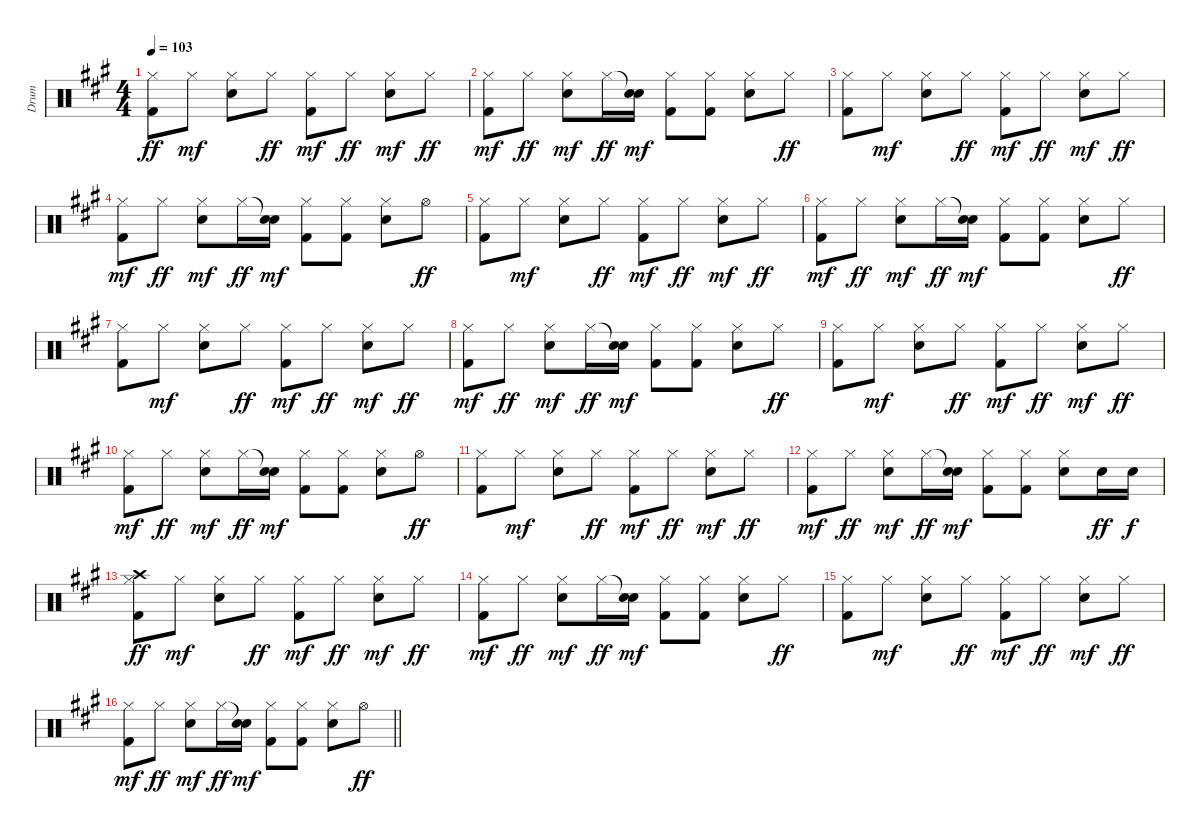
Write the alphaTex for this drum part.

\track ("Drum" "Drum") {instrument percussion}
\staff {score}
\articulation defaults
\ts (4 4)
\tempo 103
\clef neutral
\ks a
("Hi-Hat (closed)" "Kick (hit) 2").8{dy ff} "Hi-Hat (closed)".8{dy mf} ("Hi-Hat (closed)" "Electric Snare (hit)").8 "Hi-Hat (closed)".8{dy ff} ("Hi-Hat (closed)" "Kick (hit) 2").8{dy mf} "Hi-Hat (closed)".8{dy ff} ("Hi-Hat (closed)" "Electric Snare (hit)").8{dy mf} "Hi-Hat (closed)".8{dy ff} |
("Hi-Hat (closed)" "Kick (hit) 2").8{dy mf} "Hi-Hat (closed)".8{dy ff} ("Hi-Hat (closed)" "Electric Snare (hit)").8{dy mf} "Hi-Hat (closed)".16{dy ff} ("Snare (hit)"{t} "Electric Snare (hit)").16{dy mf} ("Hi-Hat (closed)" "Kick (hit) 2").8 ("Hi-Hat (closed)" "Kick (hit) 2").8 ("Hi-Hat (closed)" "Electric Snare (hit)").8 "Hi-Hat (closed)".8{dy ff} |
("Hi-Hat (closed)" "Kick (hit) 2").8 "Hi-Hat (closed)".8{dy mf} ("Hi-Hat (closed)" "Electric Snare (hit)").8 "Hi-Hat (closed)".8{dy ff} ("Hi-Hat (closed)" "Kick (hit) 2").8{dy mf} "Hi-Hat (closed)".8{dy ff} ("Hi-Hat (closed)" "Electric Snare (hit)").8{dy mf} "Hi-Hat (closed)".8{dy ff} |
("Hi-Hat (closed)" "Kick (hit) 2").8{dy mf} "Hi-Hat (closed)".8{dy ff} ("Hi-Hat (closed)" "Electric Snare (hit)").8{dy mf} "Hi-Hat (closed)".16{dy ff} ("Snare (hit)"{t} "Electric Snare (hit)").16{dy mf} ("Hi-Hat (closed)" "Kick (hit) 2").8 ("Hi-Hat (closed)" "Kick (hit) 2").8 ("Hi-Hat (closed)" "Electric Snare (hit)").8 "Hi-Hat (open)".8{dy ff} |
("Hi-Hat (closed)" "Kick (hit) 2").8 "Hi-Hat (closed)".8{dy mf} ("Hi-Hat (closed)" "Electric Snare (hit)").8 "Hi-Hat (closed)".8{dy ff} ("Hi-Hat (closed)" "Kick (hit) 2").8{dy mf} "Hi-Hat (closed)".8{dy ff} ("Hi-Hat (closed)" "Electric Snare (hit)").8{dy mf} "Hi-Hat (closed)".8{dy ff} |
("Hi-Hat (closed)" "Kick (hit) 2").8{dy mf} "Hi-Hat (closed)".8{dy ff} ("Hi-Hat (closed)" "Electric Snare (hit)").8{dy mf} "Hi-Hat (closed)".16{dy ff} ("Snare (hit)"{t} "Electric Snare (hit)").16{dy mf} ("Hi-Hat (closed)" "Kick (hit) 2").8 ("Hi-Hat (closed)" "Kick (hit) 2").8 ("Hi-Hat (closed)" "Electric Snare (hit)").8 "Hi-Hat (closed)".8{dy ff} |
("Hi-Hat (closed)" "Kick (hit) 2").8 "Hi-Hat (closed)".8{dy mf} ("Hi-Hat (closed)" "Electric Snare (hit)").8 "Hi-Hat (closed)".8{dy ff} ("Hi-Hat (closed)" "Kick (hit) 2").8{dy mf} "Hi-Hat (closed)".8{dy ff} ("Hi-Hat (closed)" "Electric Snare (hit)").8{dy mf} "Hi-Hat (closed)".8{dy ff} |
("Hi-Hat (closed)" "Kick (hit) 2").8{dy mf} "Hi-Hat (closed)".8{dy ff} ("Hi-Hat (closed)" "Electric Snare (hit)").8{dy mf} "Hi-Hat (closed)".16{dy ff} ("Snare (hit)"{t} "Electric Snare (hit)").16{dy mf} ("Hi-Hat (closed)" "Kick (hit) 2").8 ("Hi-Hat (closed)" "Kick (hit) 2").8 ("Hi-Hat (closed)" "Electric Snare (hit)").8 "Hi-Hat (closed)".8{dy ff} |
("Hi-Hat (closed)" "Kick (hit) 2").8 "Hi-Hat (closed)".8{dy mf} ("Hi-Hat (closed)" "Electric Snare (hit)").8 "Hi-Hat (closed)".8{dy ff} ("Hi-Hat (closed)" "Kick (hit) 2").8{dy mf} "Hi-Hat (closed)".8{dy ff} ("Hi-Hat (closed)" "Electric Snare (hit)").8{dy mf} "Hi-Hat (closed)".8{dy ff} |
("Hi-Hat (closed)" "Kick (hit) 2").8{dy mf} "Hi-Hat (closed)".8{dy ff} ("Hi-Hat (closed)" "Electric Snare (hit)").8{dy mf} "Hi-Hat (closed)".16{dy ff} ("Snare (hit)"{t} "Electric Snare (hit)").16{dy mf} ("Hi-Hat (closed)" "Kick (hit) 2").8 ("Hi-Hat (closed)" "Kick (hit) 2").8 ("Hi-Hat (closed)" "Electric Snare (hit)").8 "Hi-Hat (open)".8{dy ff} |
("Hi-Hat (closed)" "Kick (hit) 2").8 "Hi-Hat (closed)".8{dy mf} ("Hi-Hat (closed)" "Electric Snare (hit)").8 "Hi-Hat (closed)".8{dy ff} ("Hi-Hat (closed)" "Kick (hit) 2").8{dy mf} "Hi-Hat (closed)".8{dy ff} ("Hi-Hat (closed)" "Electric Snare (hit)").8{dy mf} "Hi-Hat (closed)".8{dy ff} |
("Hi-Hat (closed)" "Kick (hit) 2").8{dy mf} "Hi-Hat (closed)".8{dy ff} ("Hi-Hat (closed)" "Electric Snare (hit)").8{dy mf} "Hi-Hat (closed)".16{dy ff} ("Snare (hit)"{t} "Electric Snare (hit)").16{dy mf} ("Hi-Hat (closed)" "Kick (hit) 2").8 ("Hi-Hat (closed)" "Kick (hit) 2").8 ("Hi-Hat (closed)" "Electric Snare (hit)").8 "Snare (hit) 2".16{dy ff} "Snare (hit) 2".16{dy f} |
("Crash high (hit)" "Hi-Hat (closed)" "Kick (hit) 2").8{dy ff} "Hi-Hat (closed)".8{dy mf} ("Hi-Hat (closed)" "Electric Snare (hit)").8 "Hi-Hat (closed)".8{dy ff} ("Hi-Hat (closed)" "Kick (hit) 2").8{dy mf} "Hi-Hat (closed)".8{dy ff} ("Hi-Hat (closed)" "Electric Snare (hit)").8{dy mf} "Hi-Hat (closed)".8{dy ff} |
("Hi-Hat (closed)" "Kick (hit) 2").8{dy mf} "Hi-Hat (closed)".8{dy ff} ("Hi-Hat (closed)" "Electric Snare (hit)").8{dy mf} "Hi-Hat (closed)".16{dy ff} ("Snare (hit)"{t} "Electric Snare (hit)").16{dy mf} ("Hi-Hat (closed)" "Kick (hit) 2").8 ("Hi-Hat (closed)" "Kick (hit) 2").8 ("Hi-Hat (closed)" "Electric Snare (hit)").8 "Hi-Hat (closed)".8{dy ff} |
("Hi-Hat (closed)" "Kick (hit) 2").8 "Hi-Hat (closed)".8{dy mf} ("Hi-Hat (closed)" "Electric Snare (hit)").8 "Hi-Hat (closed)".8{dy ff} ("Hi-Hat (closed)" "Kick (hit) 2").8{dy mf} "Hi-Hat (closed)".8{dy ff} ("Hi-Hat (closed)" "Electric Snare (hit)").8{dy mf} "Hi-Hat (closed)".8{dy ff} |
\barLineRight lightlight
("Hi-Hat (closed)" "Kick (hit) 2").8{dy mf} "Hi-Hat (closed)".8{dy ff} ("Hi-Hat (closed)" "Electric Snare (hit)").8{dy mf} "Hi-Hat (closed)".16{dy ff} ("Snare (hit)"{t} "Electric Snare (hit)").16{dy mf} ("Hi-Hat (closed)" "Kick (hit) 2").8 ("Hi-Hat (closed)" "Kick (hit) 2").8 ("Hi-Hat (closed)" "Electric Snare (hit)").8 "Hi-Hat (open)".8{dy ff}
